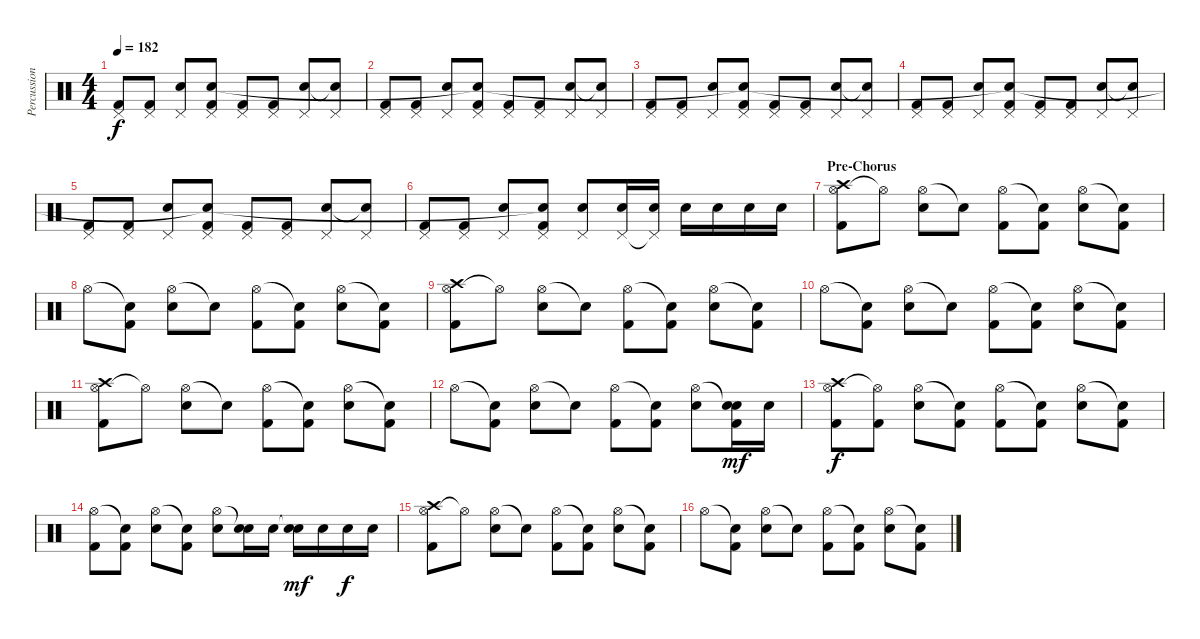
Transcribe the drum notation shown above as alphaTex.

\track ("Percussion" "Percussion") {instrument percussion}
\staff {score}
\articulation defaults
\ts (4 4)
\tempo 182
\clef neutral
\ks c
("Pedal Hi-Hat (hit)" "Kick (hit) 2").8{dy f} ("Pedal Hi-Hat (hit)" "Kick (hit) 2").8 ("Pedal Hi-Hat (hit)" "Electric Snare (hit)").8 ("Pedal Hi-Hat (hit)" "Kick (hit) 2" "Snare (hit)"{t}).8 ("Pedal Hi-Hat (hit)" "Kick (hit) 2").8 ("Pedal Hi-Hat (hit)" "Kick (hit) 2").8 ("Pedal Hi-Hat (hit)" "Electric Snare (hit)").8 ("Pedal Hi-Hat (hit)" "Snare (hit)"{t}).8 |
("Pedal Hi-Hat (hit)" "Kick (hit) 2").8 ("Pedal Hi-Hat (hit)" "Kick (hit) 2").8 ("Pedal Hi-Hat (hit)" "Electric Snare (hit)").8 ("Pedal Hi-Hat (hit)" "Kick (hit) 2" "Snare (hit)"{t}).8 ("Pedal Hi-Hat (hit)" "Kick (hit) 2").8 ("Pedal Hi-Hat (hit)" "Kick (hit) 2").8 ("Pedal Hi-Hat (hit)" "Electric Snare (hit)").8 ("Pedal Hi-Hat (hit)" "Snare (hit)"{t}).8 |
("Pedal Hi-Hat (hit)" "Kick (hit) 2").8 ("Pedal Hi-Hat (hit)" "Kick (hit) 2").8 ("Pedal Hi-Hat (hit)" "Electric Snare (hit)").8 ("Pedal Hi-Hat (hit)" "Kick (hit) 2" "Snare (hit)"{t}).8 ("Pedal Hi-Hat (hit)" "Kick (hit) 2").8 ("Pedal Hi-Hat (hit)" "Kick (hit) 2").8 ("Pedal Hi-Hat (hit)" "Electric Snare (hit)").8 ("Pedal Hi-Hat (hit)" "Snare (hit)"{t}).8 |
("Pedal Hi-Hat (hit)" "Kick (hit) 2").8 ("Pedal Hi-Hat (hit)" "Kick (hit) 2").8 ("Pedal Hi-Hat (hit)" "Electric Snare (hit)").8 ("Pedal Hi-Hat (hit)" "Kick (hit) 2" "Snare (hit)"{t}).8 ("Pedal Hi-Hat (hit)" "Kick (hit) 2").8 ("Pedal Hi-Hat (hit)" "Kick (hit) 2").8 ("Pedal Hi-Hat (hit)" "Electric Snare (hit)").8 ("Pedal Hi-Hat (hit)" "Snare (hit)"{t}).8 |
("Pedal Hi-Hat (hit)" "Kick (hit) 2").8 ("Pedal Hi-Hat (hit)" "Kick (hit) 2").8 ("Pedal Hi-Hat (hit)" "Electric Snare (hit)").8 ("Pedal Hi-Hat (hit)" "Kick (hit) 2" "Snare (hit)"{t}).8 ("Pedal Hi-Hat (hit)" "Kick (hit) 2").8 ("Pedal Hi-Hat (hit)" "Kick (hit) 2").8 ("Pedal Hi-Hat (hit)" "Electric Snare (hit)").8 ("Pedal Hi-Hat (hit)" "Snare (hit)"{t}).8 |
("Pedal Hi-Hat (hit)" "Kick (hit) 2").8 ("Pedal Hi-Hat (hit)" "Kick (hit) 2").8 ("Pedal Hi-Hat (hit)" "Electric Snare (hit)").8 ("Pedal Hi-Hat (hit)" "Kick (hit) 2" "Snare (hit)"{t}).8 ("Pedal Hi-Hat (hit)" "Electric Snare (hit)").8 ("Pedal Hi-Hat (hit)" "Electric Snare (hit)").16 ("Pedal Hi-Hat (hit)"{t} "Electric Snare (hit)").16 "Electric Snare (hit)".16 "Electric Snare (hit)".16 "Electric Snare (hit)".16 "Electric Snare (hit)".16 |
\section ("" "Pre-Chorus")
("Hi-Hat (open)" "Kick (hit) 2" "Crash high (hit)").8 "Hi-Hat (open)"{t}.8 ("Hi-Hat (open)" "Electric Snare (hit)").8 "Snare (hit)"{t}.8 ("Hi-Hat (open)" "Kick (hit) 2").8 ("Snare (hit)"{t} "Kick (hit) 2").8 ("Hi-Hat (open)" "Electric Snare (hit)").8 ("Snare (hit)"{t} "Kick (hit) 2").8 |
"Hi-Hat (open)".8 ("Snare (hit)"{t} "Kick (hit) 2").8 ("Hi-Hat (open)" "Electric Snare (hit)").8 "Snare (hit)"{t}.8 ("Hi-Hat (open)" "Kick (hit) 2").8 ("Snare (hit)"{t} "Kick (hit) 2").8 ("Hi-Hat (open)" "Electric Snare (hit)").8 ("Snare (hit)"{t} "Kick (hit) 2").8 |
("Hi-Hat (open)" "Kick (hit) 2" "Crash high (hit)").8 "Hi-Hat (open)"{t}.8 ("Hi-Hat (open)" "Electric Snare (hit)").8 "Snare (hit)"{t}.8 ("Hi-Hat (open)" "Kick (hit) 2").8 ("Snare (hit)"{t} "Kick (hit) 2").8 ("Hi-Hat (open)" "Electric Snare (hit)").8 ("Snare (hit)"{t} "Kick (hit) 2").8 |
"Hi-Hat (open)".8 ("Snare (hit)"{t} "Kick (hit) 2").8 ("Hi-Hat (open)" "Electric Snare (hit)").8 "Snare (hit)"{t}.8 ("Hi-Hat (open)" "Kick (hit) 2").8 ("Snare (hit)"{t} "Kick (hit) 2").8 ("Hi-Hat (open)" "Electric Snare (hit)").8 ("Snare (hit)"{t} "Kick (hit) 2").8 |
("Hi-Hat (open)" "Kick (hit) 2" "Crash high (hit)").8 "Hi-Hat (open)"{t}.8 ("Hi-Hat (open)" "Electric Snare (hit)").8 "Snare (hit)"{t}.8 ("Hi-Hat (open)" "Kick (hit) 2").8 ("Snare (hit)"{t} "Kick (hit) 2").8 ("Hi-Hat (open)" "Electric Snare (hit)").8 ("Snare (hit)"{t} "Kick (hit) 2").8 |
"Hi-Hat (open)".8 ("Snare (hit)"{t} "Kick (hit) 2").8 ("Hi-Hat (open)" "Electric Snare (hit)").8 "Snare (hit)"{t}.8 ("Hi-Hat (open)" "Kick (hit) 2").8 ("Snare (hit)"{t} "Kick (hit) 2").8 ("Hi-Hat (open)" "Electric Snare (hit)").8 ("Snare (hit)"{t} "Kick (hit) 2" "Electric Snare (hit)").16{dy mf} "Electric Snare (hit)".16 |
("Hi-Hat (open)" "Kick (hit) 2" "Crash high (hit)").8{dy f} ("Hi-Hat (open)"{t} "Kick (hit) 2").8 ("Hi-Hat (open)" "Electric Snare (hit)").8 ("Snare (hit)"{t} "Kick (hit) 2").8 ("Hi-Hat (open)" "Kick (hit) 2").8 ("Snare (hit)"{t} "Kick (hit) 2").8 ("Hi-Hat (open)" "Electric Snare (hit)").8 ("Snare (hit)"{t} "Kick (hit) 2").8 |
("Hi-Hat (open)" "Kick (hit) 2").8 ("Snare (hit)"{t} "Kick (hit) 2").8 ("Hi-Hat (open)" "Electric Snare (hit)").8 ("Snare (hit)"{t} "Kick (hit) 2").8 ("Hi-Hat (open)" "Electric Snare (hit)").8 ("Snare (hit)"{t} "Electric Snare (hit)").16 "Electric Snare (hit)".16 ("Snare (hit)"{t} "Electric Snare (hit)").16{dy mf} "Electric Snare (hit)".16 "Electric Snare (hit)".16{dy f} "Electric Snare (hit)".16 |
("Hi-Hat (open)" "Kick (hit) 2" "Crash high (hit)").8 "Hi-Hat (open)"{t}.8 ("Hi-Hat (open)" "Electric Snare (hit)").8 "Snare (hit)"{t}.8 ("Hi-Hat (open)" "Kick (hit) 2").8 ("Snare (hit)"{t} "Kick (hit) 2").8 ("Hi-Hat (open)" "Electric Snare (hit)").8 ("Snare (hit)"{t} "Kick (hit) 2").8 |
"Hi-Hat (open)".8 ("Snare (hit)"{t} "Kick (hit) 2").8 ("Hi-Hat (open)" "Electric Snare (hit)").8 "Snare (hit)"{t}.8 ("Hi-Hat (open)" "Kick (hit) 2").8 ("Snare (hit)"{t} "Kick (hit) 2").8 ("Hi-Hat (open)" "Electric Snare (hit)").8 ("Snare (hit)"{t} "Kick (hit) 2").8
